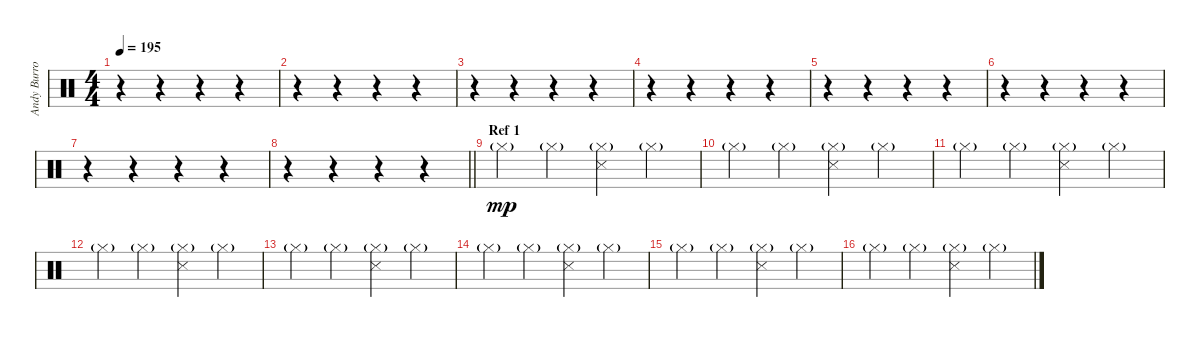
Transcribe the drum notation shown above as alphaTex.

\track ("Andy Burrows (drums)" "Andy Burro") {instrument percussion}
\staff {score}
\articulation defaults
\ts (4 4)
\tempo 195
\clef neutral
\ks c
r.4{dy mp} r.4 r.4 r.4 |
r.4 r.4 r.4 r.4 |
r.4 r.4 r.4 r.4 |
r.4 r.4 r.4 r.4 |
r.4 r.4 r.4 r.4 |
r.4 r.4 r.4 r.4 |
r.4 r.4 r.4 r.4 |
\barLineRight lightlight
r.4 r.4 r.4 r.4 |
\section ("" "Ref 1")
"Hi-Hat (closed)"{g}.4 "Hi-Hat (closed)"{g}.4 ("Hi-Hat (closed)"{g} "Snare (side stick) 3").4 "Hi-Hat (closed)"{g}.4 |
"Hi-Hat (closed)"{g}.4 "Hi-Hat (closed)"{g}.4 ("Hi-Hat (closed)"{g} "Snare (side stick) 3").4 "Hi-Hat (closed)"{g}.4 |
"Hi-Hat (closed)"{g}.4 "Hi-Hat (closed)"{g}.4 ("Hi-Hat (closed)"{g} "Snare (side stick) 3").4 "Hi-Hat (closed)"{g}.4 |
"Hi-Hat (closed)"{g}.4 "Hi-Hat (closed)"{g}.4 ("Hi-Hat (closed)"{g} "Snare (side stick) 3").4 "Hi-Hat (closed)"{g}.4 |
"Hi-Hat (closed)"{g}.4 "Hi-Hat (closed)"{g}.4 ("Hi-Hat (closed)"{g} "Snare (side stick) 3").4 "Hi-Hat (closed)"{g}.4 |
"Hi-Hat (closed)"{g}.4 "Hi-Hat (closed)"{g}.4 ("Hi-Hat (closed)"{g} "Snare (side stick) 3").4 "Hi-Hat (closed)"{g}.4 |
"Hi-Hat (closed)"{g}.4 "Hi-Hat (closed)"{g}.4 ("Hi-Hat (closed)"{g} "Snare (side stick) 3").4 "Hi-Hat (closed)"{g}.4 |
"Hi-Hat (closed)"{g}.4 "Hi-Hat (closed)"{g}.4 ("Hi-Hat (closed)"{g} "Snare (side stick) 3").4 "Hi-Hat (closed)"{g}.4
